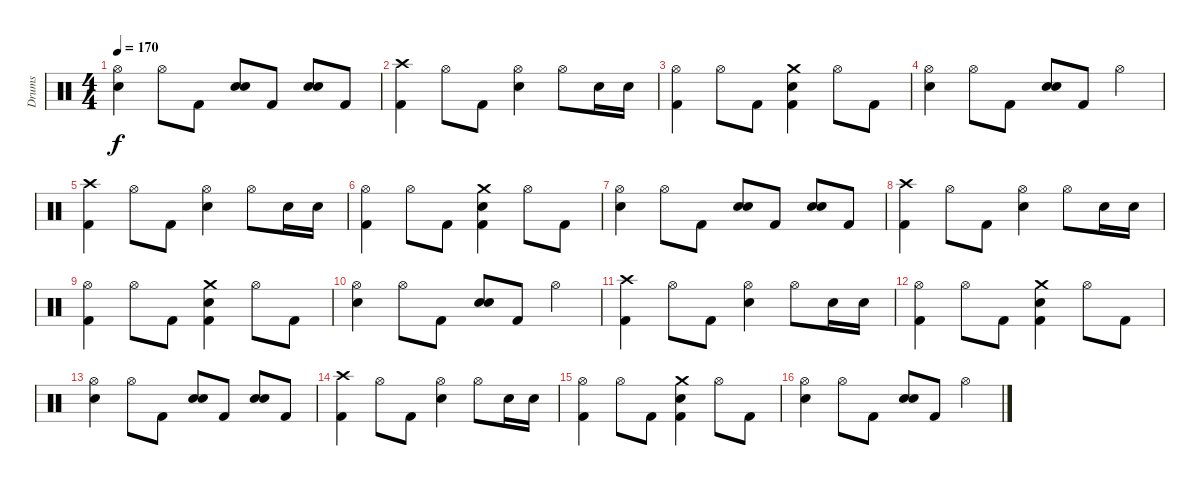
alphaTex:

\track ("Drums" "Drums") {instrument percussion}
\staff {score}
\articulation defaults
\ts (4 4)
\tempo 170
\clef neutral
\ks c
("Hi-Hat (open)" "Snare (hit) 2").4{dy f} "Hi-Hat (open)".8 "Kick (hit) 2".8 ("Snare (hit) 2" "Snare (hit) 2").8 "Kick (hit) 2".8 ("Snare (hit) 2" "Snare (hit) 2").8 "Kick (hit) 2".8 |
("Crash high (hit)" "Kick (hit) 2").4 "Hi-Hat (open)".8 "Kick (hit) 2".8 ("Hi-Hat (open)" "Snare (hit) 2").4 "Hi-Hat (open)".8 "Snare (hit) 2".16 "Snare (hit) 2".16 |
("Hi-Hat (open)" "Kick (hit) 2").4 "Hi-Hat (open)".8 "Kick (hit) 2".8 ("Crash medium (hit)" "Snare (hit) 2" "Kick (hit) 2").4 "Hi-Hat (open)".8 "Kick (hit) 2".8 |
("Hi-Hat (open)" "Snare (hit) 2").4 "Hi-Hat (open)".8 "Kick (hit) 2".8 ("Snare (hit) 2" "Snare (hit) 2").8 "Kick (hit) 2".8 "Hi-Hat (open)".4 |
("Crash high (hit)" "Kick (hit) 2").4 "Hi-Hat (open)".8 "Kick (hit) 2".8 ("Hi-Hat (open)" "Snare (hit) 2").4 "Hi-Hat (open)".8 "Snare (hit) 2".16 "Snare (hit) 2".16 |
("Hi-Hat (open)" "Kick (hit) 2").4 "Hi-Hat (open)".8 "Kick (hit) 2".8 ("Crash medium (hit)" "Snare (hit) 2" "Kick (hit) 2").4 "Hi-Hat (open)".8 "Kick (hit) 2".8 |
("Hi-Hat (open)" "Snare (hit) 2").4 "Hi-Hat (open)".8 "Kick (hit) 2".8 ("Snare (hit) 2" "Snare (hit) 2").8 "Kick (hit) 2".8 ("Snare (hit) 2" "Snare (hit) 2").8 "Kick (hit) 2".8 |
("Crash high (hit)" "Kick (hit) 2").4 "Hi-Hat (open)".8 "Kick (hit) 2".8 ("Hi-Hat (open)" "Snare (hit) 2").4 "Hi-Hat (open)".8 "Snare (hit) 2".16 "Snare (hit) 2".16 |
("Hi-Hat (open)" "Kick (hit) 2").4 "Hi-Hat (open)".8 "Kick (hit) 2".8 ("Crash medium (hit)" "Snare (hit) 2" "Kick (hit) 2").4 "Hi-Hat (open)".8 "Kick (hit) 2".8 |
("Hi-Hat (open)" "Snare (hit) 2").4 "Hi-Hat (open)".8 "Kick (hit) 2".8 ("Snare (hit) 2" "Snare (hit) 2").8 "Kick (hit) 2".8 "Hi-Hat (open)".4 |
("Crash high (hit)" "Kick (hit) 2").4 "Hi-Hat (open)".8 "Kick (hit) 2".8 ("Hi-Hat (open)" "Snare (hit) 2").4 "Hi-Hat (open)".8 "Snare (hit) 2".16 "Snare (hit) 2".16 |
("Hi-Hat (open)" "Kick (hit) 2").4 "Hi-Hat (open)".8 "Kick (hit) 2".8 ("Crash medium (hit)" "Snare (hit) 2" "Kick (hit) 2").4 "Hi-Hat (open)".8 "Kick (hit) 2".8 |
("Hi-Hat (open)" "Snare (hit) 2").4 "Hi-Hat (open)".8 "Kick (hit) 2".8 ("Snare (hit) 2" "Snare (hit) 2").8 "Kick (hit) 2".8 ("Snare (hit) 2" "Snare (hit) 2").8 "Kick (hit) 2".8 |
("Crash high (hit)" "Kick (hit) 2").4 "Hi-Hat (open)".8 "Kick (hit) 2".8 ("Hi-Hat (open)" "Snare (hit) 2").4 "Hi-Hat (open)".8 "Snare (hit) 2".16 "Snare (hit) 2".16 |
("Hi-Hat (open)" "Kick (hit) 2").4 "Hi-Hat (open)".8 "Kick (hit) 2".8 ("Crash medium (hit)" "Snare (hit) 2" "Kick (hit) 2").4 "Hi-Hat (open)".8 "Kick (hit) 2".8 |
("Hi-Hat (open)" "Snare (hit) 2").4 "Hi-Hat (open)".8 "Kick (hit) 2".8 ("Snare (hit) 2" "Snare (hit) 2").8 "Kick (hit) 2".8 "Hi-Hat (open)".4
